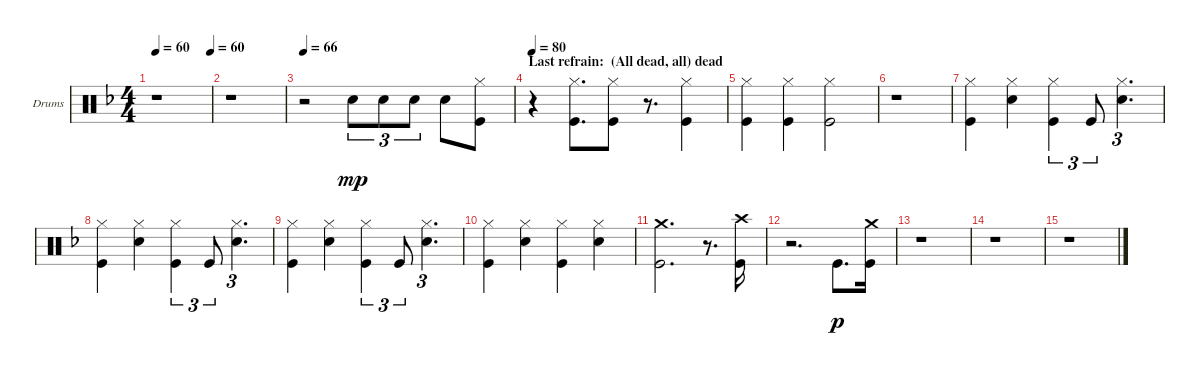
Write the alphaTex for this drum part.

\bracketExtendMode groupsimilarinstruments
\firstSystemTrackNameOrientation horizontal
\otherSystemsTrackNameOrientation horizontal
\track ("Drumkit" "Drums") {instrument percussion}
\staff {score}
\articulation defaults
\ts (4 4)
\tempo 60
\tempo (60 0.99375)
\clef neutral
\ks dminor
r.1{dy mp} |
r.1 |
\tempo 66
r.2 "Snare (hit) 2".8{tu (3 2)} "Snare (hit) 2".8{tu (3 2)} "Snare (hit) 2".8{tu (3 2)} "Snare (hit) 2".8 ("Kick (hit)" "Hi-Hat (closed)").8 |
\section ("" "Last refrain:  (All dead, all) dead")
\tempo 80
r.4 ("Kick (hit)" "Hi-Hat (closed)").8{d} ("Kick (hit)" "Hi-Hat (closed)").8 r.8{d} ("Kick (hit)" "Hi-Hat (closed)").4 |
("Kick (hit)" "Hi-Hat (closed)").4 ("Kick (hit)" "Hi-Hat (closed)").4 ("Kick (hit)" "Hi-Hat (closed)").2 |
r.1 |
("Hi-Hat (closed)" "Kick (hit)").4 ("Hi-Hat (closed)" "Snare (hit) 2").4 ("Hi-Hat (closed)" "Kick (hit)").4{tu (3 2)} "Kick (hit)".8{tu (3 2)} ("Hi-Hat (closed)" "Snare (hit) 2").4{d tu (3 2)} |
("Hi-Hat (closed)" "Kick (hit)").4 ("Hi-Hat (closed)" "Snare (hit) 2").4 ("Hi-Hat (closed)" "Kick (hit)").4{tu (3 2)} "Kick (hit)".8{tu (3 2)} ("Hi-Hat (closed)" "Snare (hit) 2").4{d tu (3 2)} |
("Hi-Hat (closed)" "Kick (hit)").4 ("Hi-Hat (closed)" "Snare (hit) 2").4 ("Hi-Hat (closed)" "Kick (hit)").4{tu (3 2)} "Kick (hit)".8{tu (3 2)} ("Hi-Hat (closed)" "Snare (hit) 2").4{d tu (3 2)} |
("Hi-Hat (closed)" "Kick (hit)").4 ("Snare (hit) 2" "Hi-Hat (closed)").4 ("Hi-Hat (closed)" "Kick (hit)").4 ("Hi-Hat (closed)" "Snare (hit) 2").4 |
("Kick (hit)" "Crash medium (hit)").2{d} r.8{d} ("Crash high (hit)" "Kick (hit)").16 |
r.2{d} "Kick (hit)".8{d dy p} ("Crash medium (hit)" "Kick (hit)").16 |
r.1 |
r.1 |
r.1
